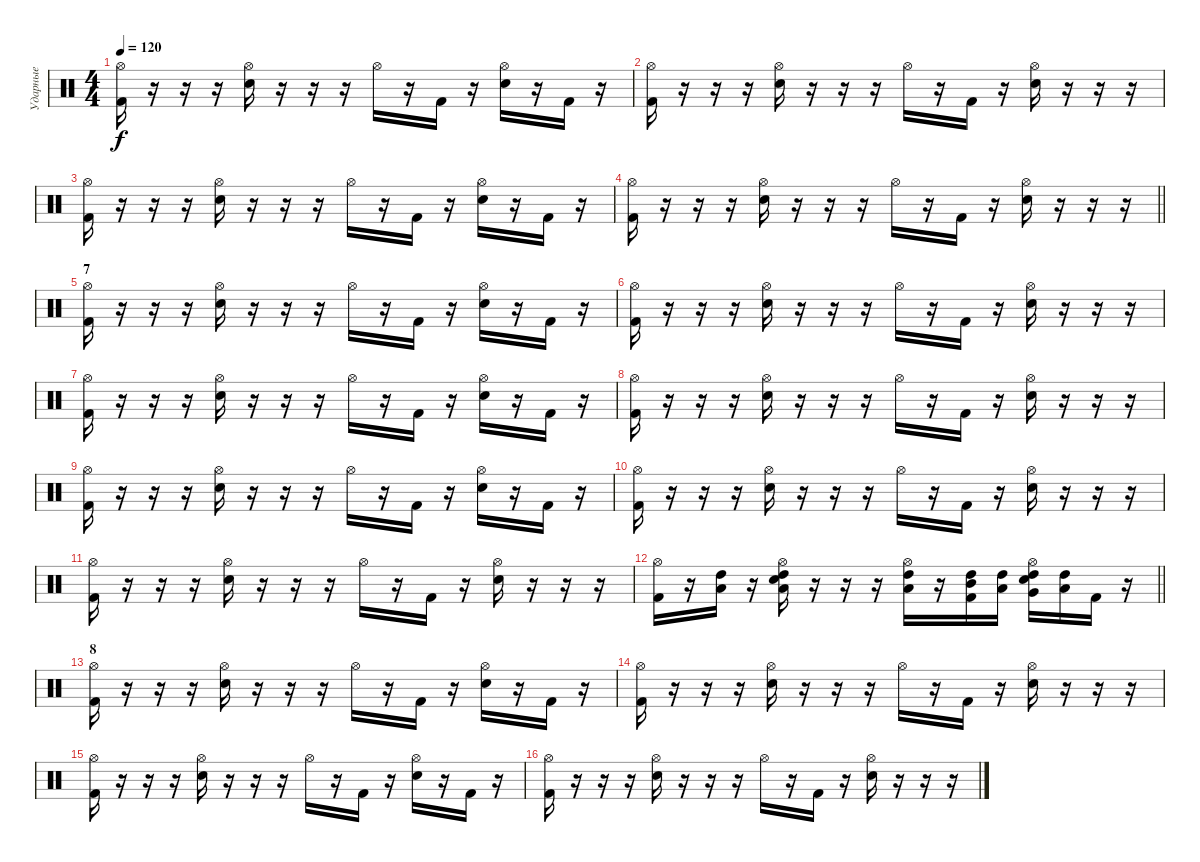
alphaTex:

\track ("Ударные" "Ударные") {instrument percussion}
\staff {score}
\articulation defaults
\ts (4 4)
\tempo 120
\clef neutral
\ks c
("Hi-Hat (open)" "Kick (hit) 2").16{dy f} r.16 r.16 r.16 ("Hi-Hat (open)" "Snare (hit) 2").16 r.16 r.16 r.16 "Hi-Hat (open)".16 r.16 "Kick (hit) 2".16 r.16 ("Hi-Hat (open)" "Snare (hit) 2").16 r.16 "Kick (hit) 2".16 r.16 |
("Hi-Hat (open)" "Kick (hit) 2").16 r.16 r.16 r.16 ("Hi-Hat (open)" "Snare (hit) 2").16 r.16 r.16 r.16 "Hi-Hat (open)".16 r.16 "Kick (hit) 2".16 r.16 ("Hi-Hat (open)" "Snare (hit) 2").16 r.16 r.16 r.16 |
("Hi-Hat (open)" "Kick (hit) 2").16 r.16 r.16 r.16 ("Hi-Hat (open)" "Snare (hit) 2").16 r.16 r.16 r.16 "Hi-Hat (open)".16 r.16 "Kick (hit) 2".16 r.16 ("Hi-Hat (open)" "Snare (hit) 2").16 r.16 "Kick (hit) 2".16 r.16 |
\barLineRight lightlight
("Hi-Hat (open)" "Kick (hit) 2").16 r.16 r.16 r.16 ("Hi-Hat (open)" "Snare (hit) 2").16 r.16 r.16 r.16 "Hi-Hat (open)".16 r.16 "Kick (hit) 2".16 r.16 ("Hi-Hat (open)" "Snare (hit) 2").16 r.16 r.16 r.16 |
\section ("" "7")
("Hi-Hat (open)" "Kick (hit) 2").16 r.16 r.16 r.16 ("Hi-Hat (open)" "Snare (hit) 2").16 r.16 r.16 r.16 "Hi-Hat (open)".16 r.16 "Kick (hit) 2".16 r.16 ("Hi-Hat (open)" "Snare (hit) 2").16 r.16 "Kick (hit) 2".16 r.16 |
("Hi-Hat (open)" "Kick (hit) 2").16 r.16 r.16 r.16 ("Hi-Hat (open)" "Snare (hit) 2").16 r.16 r.16 r.16 "Hi-Hat (open)".16 r.16 "Kick (hit) 2".16 r.16 ("Hi-Hat (open)" "Snare (hit) 2").16 r.16 r.16 r.16 |
("Hi-Hat (open)" "Kick (hit) 2").16 r.16 r.16 r.16 ("Hi-Hat (open)" "Snare (hit) 2").16 r.16 r.16 r.16 "Hi-Hat (open)".16 r.16 "Kick (hit) 2".16 r.16 ("Hi-Hat (open)" "Snare (hit) 2").16 r.16 "Kick (hit) 2".16 r.16 |
("Hi-Hat (open)" "Kick (hit) 2").16 r.16 r.16 r.16 ("Hi-Hat (open)" "Snare (hit) 2").16 r.16 r.16 r.16 "Hi-Hat (open)".16 r.16 "Kick (hit) 2".16 r.16 ("Hi-Hat (open)" "Snare (hit) 2").16 r.16 r.16 r.16 |
("Hi-Hat (open)" "Kick (hit) 2").16 r.16 r.16 r.16 ("Hi-Hat (open)" "Snare (hit) 2").16 r.16 r.16 r.16 "Hi-Hat (open)".16 r.16 "Kick (hit) 2".16 r.16 ("Hi-Hat (open)" "Snare (hit) 2").16 r.16 "Kick (hit) 2".16 r.16 |
("Hi-Hat (open)" "Kick (hit) 2").16 r.16 r.16 r.16 ("Hi-Hat (open)" "Snare (hit) 2").16 r.16 r.16 r.16 "Hi-Hat (open)".16 r.16 "Kick (hit) 2".16 r.16 ("Hi-Hat (open)" "Snare (hit) 2").16 r.16 r.16 r.16 |
("Hi-Hat (open)" "Kick (hit) 2").16 r.16 r.16 r.16 ("Hi-Hat (open)" "Snare (hit) 2").16 r.16 r.16 r.16 "Hi-Hat (open)".16 r.16 "Kick (hit) 2".16 r.16 ("Hi-Hat (open)" "Snare (hit) 2").16 r.16 r.16 r.16 |
\barLineRight lightlight
("Hi-Hat (open)" "Kick (hit) 2").16 r.16 ("High Tom (hit)" "Low Floor Tom (hit)").16 r.16 ("Hi-Hat (open)" "Snare (hit) 2" "High Tom (hit)" "Low Floor Tom (hit)").16 r.16 r.16 r.16 ("Hi-Hat (open)" "High Tom (hit)" "Low Floor Tom (hit)").16 r.16 ("High Tom (hit)" "Mid Tom (hit)" "Kick (hit) 2").16 ("High Tom (hit)" "Low Tom (hit)").16 ("Hi-Hat (open)" "Snare (hit) 2" "High Tom (hit)" "Very Low Tom (hit)").16 ("High Tom (hit)" "Low Floor Tom (hit)").16 "Kick (hit) 2".16 r.16 |
\section ("" "8")
("Hi-Hat (open)" "Kick (hit) 2").16 r.16 r.16 r.16 ("Hi-Hat (open)" "Snare (hit) 2").16 r.16 r.16 r.16 "Hi-Hat (open)".16 r.16 "Kick (hit) 2".16 r.16 ("Hi-Hat (open)" "Snare (hit) 2").16 r.16 "Kick (hit) 2".16 r.16 |
("Hi-Hat (open)" "Kick (hit) 2").16 r.16 r.16 r.16 ("Hi-Hat (open)" "Snare (hit) 2").16 r.16 r.16 r.16 "Hi-Hat (open)".16 r.16 "Kick (hit) 2".16 r.16 ("Hi-Hat (open)" "Snare (hit) 2").16 r.16 r.16 r.16 |
("Hi-Hat (open)" "Kick (hit) 2").16 r.16 r.16 r.16 ("Hi-Hat (open)" "Snare (hit) 2").16 r.16 r.16 r.16 "Hi-Hat (open)".16 r.16 "Kick (hit) 2".16 r.16 ("Hi-Hat (open)" "Snare (hit) 2").16 r.16 "Kick (hit) 2".16 r.16 |
("Hi-Hat (open)" "Kick (hit) 2").16 r.16 r.16 r.16 ("Hi-Hat (open)" "Snare (hit) 2").16 r.16 r.16 r.16 "Hi-Hat (open)".16 r.16 "Kick (hit) 2".16 r.16 ("Hi-Hat (open)" "Snare (hit) 2").16 r.16 r.16 r.16
